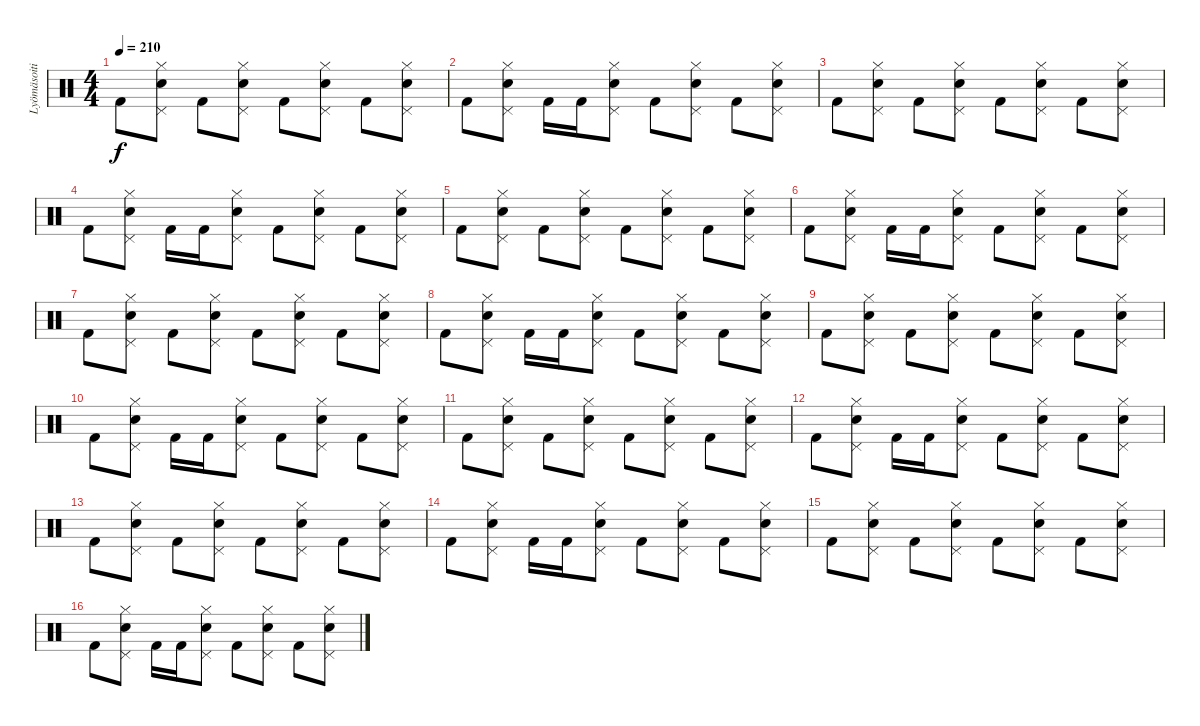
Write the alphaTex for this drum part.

\track ("Lyömäsoitin" "Lyömäsoiti") {instrument percussion}
\staff {score}
\articulation defaults
\ts (4 4)
\tempo 210
\clef neutral
\ks c "Kick (hit) 2".8{dy f}
("Hi-Hat (closed)" "Pedal Hi-Hat (hit)" "Electric Snare (hit)").8 "Kick (hit) 2".8 ("Hi-Hat (closed)" "Pedal Hi-Hat (hit)" "Electric Snare (hit)").8 "Kick (hit) 2".8 ("Hi-Hat (closed)" "Pedal Hi-Hat (hit)" "Electric Snare (hit)").8 "Kick (hit) 2".8 ("Hi-Hat (closed)" "Pedal Hi-Hat (hit)" "Electric Snare (hit)").8 |
"Kick (hit) 2".8 ("Hi-Hat (closed)" "Pedal Hi-Hat (hit)" "Electric Snare (hit)").8 "Kick (hit) 2".16 "Kick (hit) 2".16 ("Hi-Hat (closed)" "Pedal Hi-Hat (hit)" "Electric Snare (hit)").8 "Kick (hit) 2".8 ("Hi-Hat (closed)" "Pedal Hi-Hat (hit)" "Electric Snare (hit)").8 "Kick (hit) 2".8 ("Hi-Hat (closed)" "Pedal Hi-Hat (hit)" "Electric Snare (hit)").8 |
"Kick (hit) 2".8 ("Hi-Hat (closed)" "Pedal Hi-Hat (hit)" "Electric Snare (hit)").8 "Kick (hit) 2".8 ("Hi-Hat (closed)" "Pedal Hi-Hat (hit)" "Electric Snare (hit)").8 "Kick (hit) 2".8 ("Hi-Hat (closed)" "Pedal Hi-Hat (hit)" "Electric Snare (hit)").8 "Kick (hit) 2".8 ("Hi-Hat (closed)" "Pedal Hi-Hat (hit)" "Electric Snare (hit)").8 |
"Kick (hit) 2".8 ("Hi-Hat (closed)" "Pedal Hi-Hat (hit)" "Electric Snare (hit)").8 "Kick (hit) 2".16 "Kick (hit) 2".16 ("Hi-Hat (closed)" "Pedal Hi-Hat (hit)" "Electric Snare (hit)").8 "Kick (hit) 2".8 ("Hi-Hat (closed)" "Pedal Hi-Hat (hit)" "Electric Snare (hit)").8 "Kick (hit) 2".8 ("Hi-Hat (closed)" "Pedal Hi-Hat (hit)" "Electric Snare (hit)").8 |
"Kick (hit) 2".8 ("Hi-Hat (closed)" "Pedal Hi-Hat (hit)" "Electric Snare (hit)").8 "Kick (hit) 2".8 ("Hi-Hat (closed)" "Pedal Hi-Hat (hit)" "Electric Snare (hit)").8 "Kick (hit) 2".8 ("Hi-Hat (closed)" "Pedal Hi-Hat (hit)" "Electric Snare (hit)").8 "Kick (hit) 2".8 ("Hi-Hat (closed)" "Pedal Hi-Hat (hit)" "Electric Snare (hit)").8 |
"Kick (hit) 2".8 ("Hi-Hat (closed)" "Pedal Hi-Hat (hit)" "Electric Snare (hit)").8 "Kick (hit) 2".16 "Kick (hit) 2".16 ("Hi-Hat (closed)" "Pedal Hi-Hat (hit)" "Electric Snare (hit)").8 "Kick (hit) 2".8 ("Hi-Hat (closed)" "Pedal Hi-Hat (hit)" "Electric Snare (hit)").8 "Kick (hit) 2".8 ("Hi-Hat (closed)" "Pedal Hi-Hat (hit)" "Electric Snare (hit)").8 |
"Kick (hit) 2".8 ("Hi-Hat (closed)" "Pedal Hi-Hat (hit)" "Electric Snare (hit)").8 "Kick (hit) 2".8 ("Hi-Hat (closed)" "Pedal Hi-Hat (hit)" "Electric Snare (hit)").8 "Kick (hit) 2".8 ("Hi-Hat (closed)" "Pedal Hi-Hat (hit)" "Electric Snare (hit)").8 "Kick (hit) 2".8 ("Hi-Hat (closed)" "Pedal Hi-Hat (hit)" "Electric Snare (hit)").8 |
"Kick (hit) 2".8 ("Hi-Hat (closed)" "Pedal Hi-Hat (hit)" "Electric Snare (hit)").8 "Kick (hit) 2".16 "Kick (hit) 2".16 ("Hi-Hat (closed)" "Pedal Hi-Hat (hit)" "Electric Snare (hit)").8 "Kick (hit) 2".8 ("Hi-Hat (closed)" "Pedal Hi-Hat (hit)" "Electric Snare (hit)").8 "Kick (hit) 2".8 ("Hi-Hat (closed)" "Pedal Hi-Hat (hit)" "Electric Snare (hit)").8 |
"Kick (hit) 2".8 ("Hi-Hat (closed)" "Pedal Hi-Hat (hit)" "Electric Snare (hit)").8 "Kick (hit) 2".8 ("Hi-Hat (closed)" "Pedal Hi-Hat (hit)" "Electric Snare (hit)").8 "Kick (hit) 2".8 ("Hi-Hat (closed)" "Pedal Hi-Hat (hit)" "Electric Snare (hit)").8 "Kick (hit) 2".8 ("Hi-Hat (closed)" "Pedal Hi-Hat (hit)" "Electric Snare (hit)").8 |
"Kick (hit) 2".8 ("Hi-Hat (closed)" "Pedal Hi-Hat (hit)" "Electric Snare (hit)").8 "Kick (hit) 2".16 "Kick (hit) 2".16 ("Hi-Hat (closed)" "Pedal Hi-Hat (hit)" "Electric Snare (hit)").8 "Kick (hit) 2".8 ("Hi-Hat (closed)" "Pedal Hi-Hat (hit)" "Electric Snare (hit)").8 "Kick (hit) 2".8 ("Hi-Hat (closed)" "Pedal Hi-Hat (hit)" "Electric Snare (hit)").8 |
"Kick (hit) 2".8 ("Hi-Hat (closed)" "Pedal Hi-Hat (hit)" "Electric Snare (hit)").8 "Kick (hit) 2".8 ("Hi-Hat (closed)" "Pedal Hi-Hat (hit)" "Electric Snare (hit)").8 "Kick (hit) 2".8 ("Hi-Hat (closed)" "Pedal Hi-Hat (hit)" "Electric Snare (hit)").8 "Kick (hit) 2".8 ("Hi-Hat (closed)" "Pedal Hi-Hat (hit)" "Electric Snare (hit)").8 |
"Kick (hit) 2".8 ("Hi-Hat (closed)" "Pedal Hi-Hat (hit)" "Electric Snare (hit)").8 "Kick (hit) 2".16 "Kick (hit) 2".16 ("Hi-Hat (closed)" "Pedal Hi-Hat (hit)" "Electric Snare (hit)").8 "Kick (hit) 2".8 ("Hi-Hat (closed)" "Pedal Hi-Hat (hit)" "Electric Snare (hit)").8 "Kick (hit) 2".8 ("Hi-Hat (closed)" "Pedal Hi-Hat (hit)" "Electric Snare (hit)").8 |
"Kick (hit) 2".8 ("Hi-Hat (closed)" "Pedal Hi-Hat (hit)" "Electric Snare (hit)").8 "Kick (hit) 2".8 ("Hi-Hat (closed)" "Pedal Hi-Hat (hit)" "Electric Snare (hit)").8 "Kick (hit) 2".8 ("Hi-Hat (closed)" "Pedal Hi-Hat (hit)" "Electric Snare (hit)").8 "Kick (hit) 2".8 ("Hi-Hat (closed)" "Pedal Hi-Hat (hit)" "Electric Snare (hit)").8 |
"Kick (hit) 2".8 ("Hi-Hat (closed)" "Pedal Hi-Hat (hit)" "Electric Snare (hit)").8 "Kick (hit) 2".16 "Kick (hit) 2".16 ("Hi-Hat (closed)" "Pedal Hi-Hat (hit)" "Electric Snare (hit)").8 "Kick (hit) 2".8 ("Hi-Hat (closed)" "Pedal Hi-Hat (hit)" "Electric Snare (hit)").8 "Kick (hit) 2".8 ("Hi-Hat (closed)" "Pedal Hi-Hat (hit)" "Electric Snare (hit)").8 |
"Kick (hit) 2".8 ("Hi-Hat (closed)" "Pedal Hi-Hat (hit)" "Electric Snare (hit)").8 "Kick (hit) 2".8 ("Hi-Hat (closed)" "Pedal Hi-Hat (hit)" "Electric Snare (hit)").8 "Kick (hit) 2".8 ("Hi-Hat (closed)" "Pedal Hi-Hat (hit)" "Electric Snare (hit)").8 "Kick (hit) 2".8 ("Hi-Hat (closed)" "Pedal Hi-Hat (hit)" "Electric Snare (hit)").8 |
"Kick (hit) 2".8 ("Hi-Hat (closed)" "Pedal Hi-Hat (hit)" "Electric Snare (hit)").8 "Kick (hit) 2".16 "Kick (hit) 2".16 ("Hi-Hat (closed)" "Pedal Hi-Hat (hit)" "Electric Snare (hit)").8 "Kick (hit) 2".8 ("Hi-Hat (closed)" "Pedal Hi-Hat (hit)" "Electric Snare (hit)").8 "Kick (hit) 2".8 ("Hi-Hat (closed)" "Pedal Hi-Hat (hit)" "Electric Snare (hit)").8
